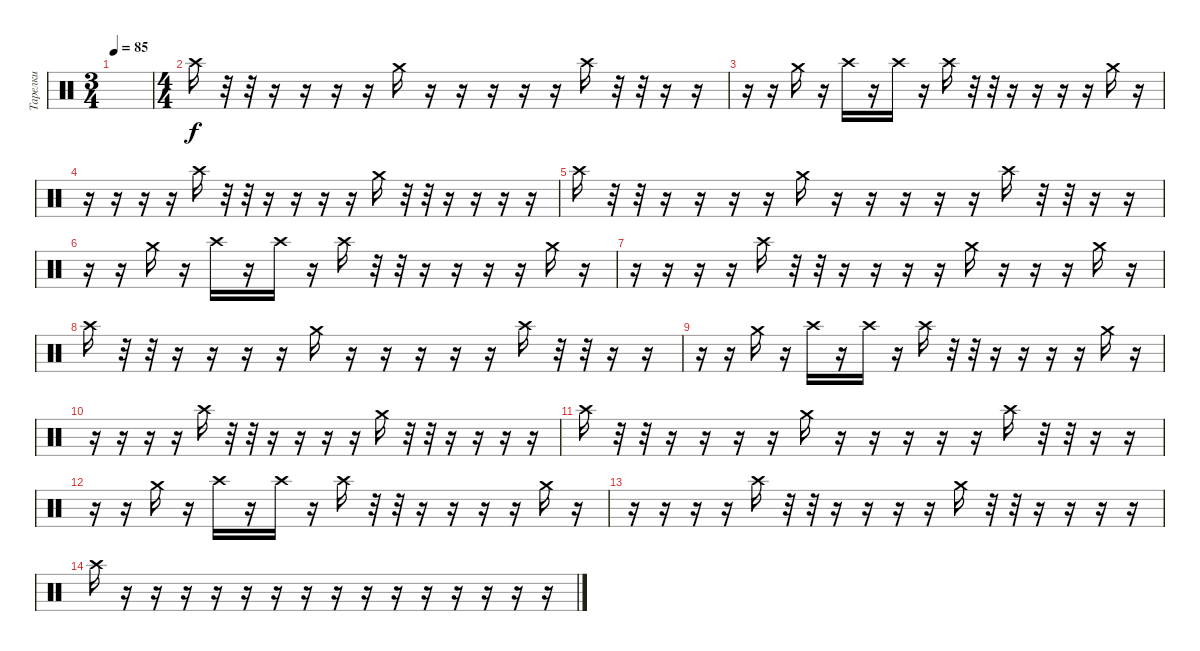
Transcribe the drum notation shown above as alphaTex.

\track ("Тарелки" "Тарелки") {instrument percussion}
\staff {score}
\articulation defaults
\ts (3 4)
\tempo 85
\clef neutral
\ks c
|
\ts (4 4)
"Crash high (hit)".16 r.32 r.32 r.16 r.16 r.16 r.16 "Crash medium (hit)".16 r.16 r.16 r.16 r.16 r.16 "Crash high (hit)".16 r.32 r.32 r.16 r.16 |
r.16 r.16 "Crash medium (hit)".16 r.16 "Crash high (hit)".16 r.16 "Crash high (hit)".16 r.16 "Crash high (hit)".16 r.32 r.32 r.16 r.16 r.16 r.16 "Crash medium (hit)".16 r.16 |
r.16 r.16 r.16 r.16 "Crash high (hit)".16 r.32 r.32 r.16 r.16 r.16 r.16 "Crash medium (hit)".16 r.32 r.32 r.16 r.16 r.16 r.16 |
"Crash high (hit)".16 r.32 r.32 r.16 r.16 r.16 r.16 "Crash medium (hit)".16 r.16 r.16 r.16 r.16 r.16 "Crash high (hit)".16 r.32 r.32 r.16 r.16 |
r.16 r.16 "Crash medium (hit)".16 r.16 "Crash high (hit)".16 r.16 "Crash high (hit)".16 r.16 "Crash high (hit)".16 r.32 r.32 r.16 r.16 r.16 r.16 "Crash medium (hit)".16 r.16 |
r.16 r.16 r.16 r.16 "Crash high (hit)".16 r.32 r.32 r.16 r.16 r.16 r.16 "Crash medium (hit)".16 r.16 r.16 r.16 "Crash medium (hit)".16 r.16 |
"Crash high (hit)".16 r.32 r.32 r.16 r.16 r.16 r.16 "Crash medium (hit)".16 r.16 r.16 r.16 r.16 r.16 "Crash high (hit)".16 r.32 r.32 r.16 r.16 |
r.16 r.16 "Crash medium (hit)".16 r.16 "Crash high (hit)".16 r.16 "Crash high (hit)".16 r.16 "Crash high (hit)".16 r.32 r.32 r.16 r.16 r.16 r.16 "Crash medium (hit)".16 r.16 |
r.16 r.16 r.16 r.16 "Crash high (hit)".16 r.32 r.32 r.16 r.16 r.16 r.16 "Crash medium (hit)".16 r.32 r.32 r.16 r.16 r.16 r.16 |
"Crash high (hit)".16 r.32 r.32 r.16 r.16 r.16 r.16 "Crash medium (hit)".16 r.16 r.16 r.16 r.16 r.16 "Crash high (hit)".16 r.32 r.32 r.16 r.16 |
r.16 r.16 "Crash medium (hit)".16 r.16 "Crash high (hit)".16 r.16 "Crash high (hit)".16 r.16 "Crash high (hit)".16 r.32 r.32 r.16 r.16 r.16 r.16 "Crash medium (hit)".16 r.16 |
r.16 r.16 r.16 r.16 "Crash high (hit)".16 r.32 r.32 r.16 r.16 r.16 r.16 "Crash medium (hit)".16 r.32 r.32 r.16 r.16 r.16 r.16 |
"Crash high (hit)".16 r.16 r.16 r.16 r.16 r.16 r.16 r.16 r.16 r.16 r.16 r.16 r.16 r.16 r.16 r.16
